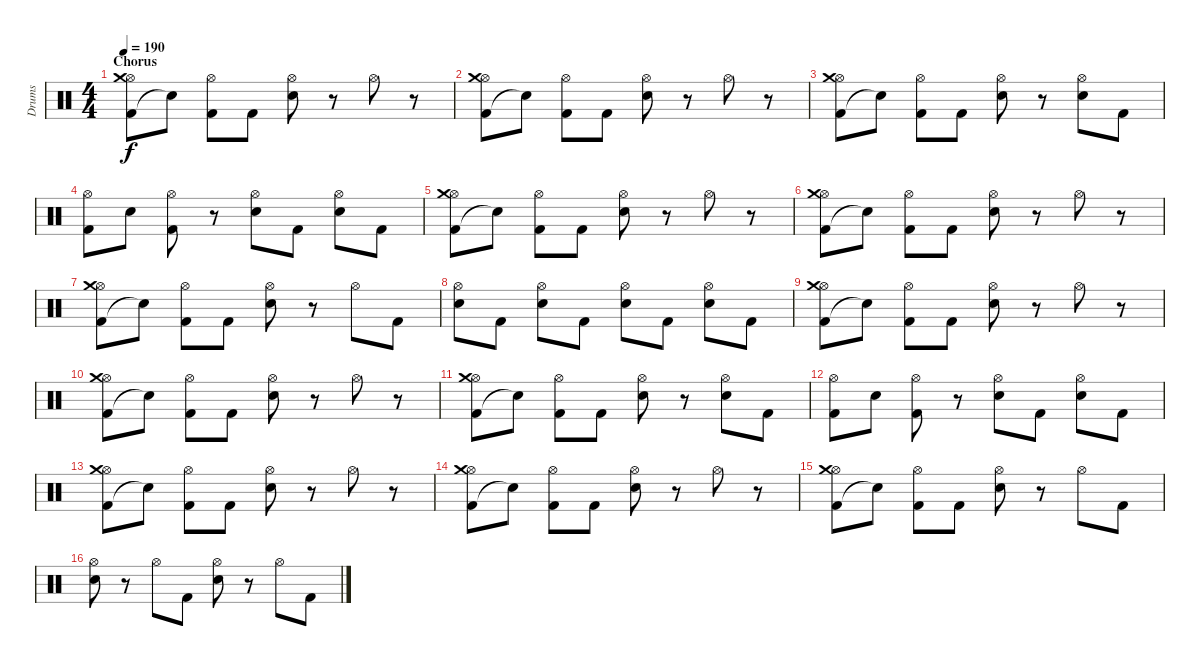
\track ("Drums" "Drums") {instrument percussion}
\staff {score}
\articulation defaults
\ts (4 4)
\section ("" "Chorus")
\tempo 190
\clef neutral
\ks c
("Kick (hit) 2" "Hi-Hat (open)" "Crash medium (hit)").8{dy f} "Snare (hit)"{t}.8 ("Kick (hit) 2" "Hi-Hat (open)").8 "Kick (hit) 2".8 ("Electric Snare (hit)" "Hi-Hat (open)").8 r.8 "Hi-Hat (open)".8 r.8 |
("Kick (hit) 2" "Hi-Hat (open)" "Crash medium (hit)").8 "Snare (hit)"{t}.8 ("Kick (hit) 2" "Hi-Hat (open)").8 "Kick (hit) 2".8 ("Electric Snare (hit)" "Hi-Hat (open)").8 r.8 "Hi-Hat (open)".8 r.8 |
("Kick (hit) 2" "Hi-Hat (open)" "Crash medium (hit)").8 "Snare (hit)"{t}.8 ("Kick (hit) 2" "Hi-Hat (open)").8 "Kick (hit) 2".8 ("Electric Snare (hit)" "Hi-Hat (open)").8 r.8 ("Electric Snare (hit)" "Hi-Hat (open)").8 "Kick (hit) 2".8 |
("Kick (hit) 2" "Hi-Hat (open)").8 "Electric Snare (hit)".8 ("Kick (hit) 2" "Hi-Hat (open)").8 r.8 ("Electric Snare (hit)" "Hi-Hat (open)").8 "Kick (hit) 2".8 ("Electric Snare (hit)" "Hi-Hat (open)").8 "Kick (hit) 2".8 |
("Kick (hit) 2" "Hi-Hat (open)" "Crash medium (hit)").8 "Snare (hit)"{t}.8 ("Kick (hit) 2" "Hi-Hat (open)").8 "Kick (hit) 2".8 ("Electric Snare (hit)" "Hi-Hat (open)").8 r.8 "Hi-Hat (open)".8 r.8 |
("Kick (hit) 2" "Hi-Hat (open)" "Crash medium (hit)").8 "Snare (hit)"{t}.8 ("Kick (hit) 2" "Hi-Hat (open)").8 "Kick (hit) 2".8 ("Electric Snare (hit)" "Hi-Hat (open)").8 r.8 "Hi-Hat (open)".8 r.8 |
("Kick (hit) 2" "Hi-Hat (open)" "Crash medium (hit)").8 "Snare (hit)"{t}.8 ("Kick (hit) 2" "Hi-Hat (open)").8 "Kick (hit) 2".8 ("Electric Snare (hit)" "Hi-Hat (open)").8 r.8 "Hi-Hat (open)".8 "Kick (hit) 2".8 |
("Electric Snare (hit)" "Hi-Hat (open)").8 "Kick (hit) 2".8 ("Electric Snare (hit)" "Hi-Hat (open)").8 "Kick (hit) 2".8 ("Electric Snare (hit)" "Hi-Hat (open)").8 "Kick (hit) 2".8 ("Electric Snare (hit)" "Hi-Hat (open)").8 "Kick (hit) 2".8 |
("Kick (hit) 2" "Hi-Hat (open)" "Crash medium (hit)").8 "Snare (hit)"{t}.8 ("Kick (hit) 2" "Hi-Hat (open)").8 "Kick (hit) 2".8 ("Electric Snare (hit)" "Hi-Hat (open)").8 r.8 "Hi-Hat (open)".8 r.8 |
("Kick (hit) 2" "Hi-Hat (open)" "Crash medium (hit)").8 "Snare (hit)"{t}.8 ("Kick (hit) 2" "Hi-Hat (open)").8 "Kick (hit) 2".8 ("Electric Snare (hit)" "Hi-Hat (open)").8 r.8 "Hi-Hat (open)".8 r.8 |
("Kick (hit) 2" "Hi-Hat (open)" "Crash medium (hit)").8 "Snare (hit)"{t}.8 ("Kick (hit) 2" "Hi-Hat (open)").8 "Kick (hit) 2".8 ("Electric Snare (hit)" "Hi-Hat (open)").8 r.8 ("Electric Snare (hit)" "Hi-Hat (open)").8 "Kick (hit) 2".8 |
("Kick (hit) 2" "Hi-Hat (open)").8 "Electric Snare (hit)".8 ("Kick (hit) 2" "Hi-Hat (open)").8 r.8 ("Electric Snare (hit)" "Hi-Hat (open)").8 "Kick (hit) 2".8 ("Electric Snare (hit)" "Hi-Hat (open)").8 "Kick (hit) 2".8 |
("Kick (hit) 2" "Hi-Hat (open)" "Crash medium (hit)").8 "Snare (hit)"{t}.8 ("Kick (hit) 2" "Hi-Hat (open)").8 "Kick (hit) 2".8 ("Electric Snare (hit)" "Hi-Hat (open)").8 r.8 "Hi-Hat (open)".8 r.8 |
("Kick (hit) 2" "Hi-Hat (open)" "Crash medium (hit)").8 "Snare (hit)"{t}.8 ("Kick (hit) 2" "Hi-Hat (open)").8 "Kick (hit) 2".8 ("Electric Snare (hit)" "Hi-Hat (open)").8 r.8 "Hi-Hat (open)".8 r.8 |
("Kick (hit) 2" "Hi-Hat (open)" "Crash medium (hit)").8 "Snare (hit)"{t}.8 ("Kick (hit) 2" "Hi-Hat (open)").8 "Kick (hit) 2".8 ("Electric Snare (hit)" "Hi-Hat (open)").8 r.8 "Hi-Hat (open)".8 "Kick (hit) 2".8 |
("Electric Snare (hit)" "Hi-Hat (open)").8 r.8 "Hi-Hat (open)".8 "Kick (hit) 2".8 ("Electric Snare (hit)" "Hi-Hat (open)").8 r.8 "Hi-Hat (open)".8 "Kick (hit) 2".8
